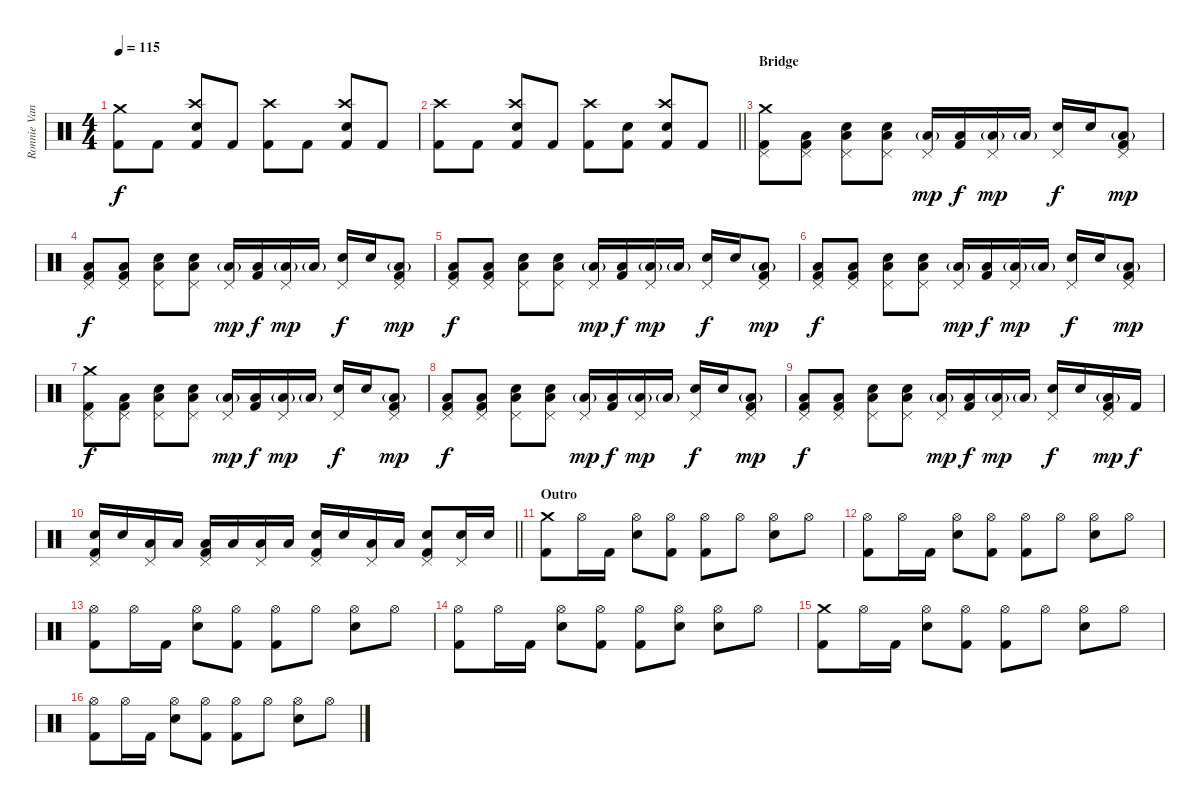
\track ("Ronnie Vannucci Jr. (Drums)" "Ronnie Van") {instrument percussion}
\staff {score}
\articulation defaults
\ts (4 4)
\tempo 115
\clef neutral
\ks c
("Crash medium (hit)" "Kick (hit) 2").8{dy f} "Kick (hit) 2".8 ("Crash high (hit)" "Electric Snare (hit)" "Kick (hit) 2").8 "Kick (hit) 2".8 ("Crash high (hit)" "Kick (hit) 2").8 "Kick (hit) 2".8 ("Crash high (hit)" "Electric Snare (hit)" "Kick (hit) 2").8 "Kick (hit) 2".8 |
\barLineRight lightlight
("Crash high (hit)" "Kick (hit) 2").8 "Kick (hit) 2".8 ("Crash high (hit)" "Electric Snare (hit)" "Kick (hit) 2").8 "Kick (hit) 2".8 ("Crash high (hit)" "Kick (hit) 2").8 ("Electric Snare (hit)" "Kick (hit) 2").8 ("Crash high (hit)" "Electric Snare (hit)" "Kick (hit) 2").8 "Kick (hit) 2".8 |
\section ("" "Bridge")
("Pedal Hi-Hat (hit)" "Crash medium (hit)" "Kick (hit) 2").8 ("Pedal Hi-Hat (hit)" "Low Floor Tom (hit)" "Kick (hit) 2").8 ("Pedal Hi-Hat (hit)" "Low Floor Tom (hit)" "Electric Snare (hit)").8 ("Pedal Hi-Hat (hit)" "Low Floor Tom (hit)" "Electric Snare (hit)").8 ("Pedal Hi-Hat (hit)" "Low Floor Tom (hit)"{g}).16{dy mp} ("Low Tom (hit)" "Kick (hit) 2").16{dy f} ("Pedal Hi-Hat (hit)" "Low Tom (hit)"{g}).16{dy mp} "Low Tom (hit)"{g}.16 ("Pedal Hi-Hat (hit)" "Electric Snare (hit)").16{dy f} "Electric Snare (hit)".16 ("Pedal Hi-Hat (hit)" "Low Floor Tom (hit)"{g} "Kick (hit) 2").8{dy mp} |
("Pedal Hi-Hat (hit)" "Low Floor Tom (hit)" "Kick (hit) 2").8{dy f} ("Pedal Hi-Hat (hit)" "Low Floor Tom (hit)" "Kick (hit) 2").8 ("Pedal Hi-Hat (hit)" "Low Floor Tom (hit)" "Electric Snare (hit)").8 ("Pedal Hi-Hat (hit)" "Low Floor Tom (hit)" "Electric Snare (hit)").8 ("Pedal Hi-Hat (hit)" "Low Floor Tom (hit)"{g}).16{dy mp} ("Low Tom (hit)" "Kick (hit) 2").16{dy f} ("Pedal Hi-Hat (hit)" "Low Tom (hit)"{g}).16{dy mp} "Low Tom (hit)"{g}.16 ("Pedal Hi-Hat (hit)" "Electric Snare (hit)").16{dy f} "Electric Snare (hit)".16 ("Pedal Hi-Hat (hit)" "Low Floor Tom (hit)"{g} "Kick (hit) 2").8{dy mp} |
("Pedal Hi-Hat (hit)" "Low Floor Tom (hit)" "Kick (hit) 2").8{dy f} ("Pedal Hi-Hat (hit)" "Low Floor Tom (hit)" "Kick (hit) 2").8 ("Pedal Hi-Hat (hit)" "Low Floor Tom (hit)" "Electric Snare (hit)").8 ("Pedal Hi-Hat (hit)" "Low Floor Tom (hit)" "Electric Snare (hit)").8 ("Pedal Hi-Hat (hit)" "Low Floor Tom (hit)"{g}).16{dy mp} ("Low Tom (hit)" "Kick (hit) 2").16{dy f} ("Pedal Hi-Hat (hit)" "Low Tom (hit)"{g}).16{dy mp} "Low Tom (hit)"{g}.16 ("Pedal Hi-Hat (hit)" "Electric Snare (hit)").16{dy f} "Electric Snare (hit)".16 ("Pedal Hi-Hat (hit)" "Low Floor Tom (hit)"{g} "Kick (hit) 2").8{dy mp} |
("Pedal Hi-Hat (hit)" "Low Floor Tom (hit)" "Kick (hit) 2").8{dy f} ("Pedal Hi-Hat (hit)" "Low Floor Tom (hit)" "Kick (hit) 2").8 ("Pedal Hi-Hat (hit)" "Low Floor Tom (hit)" "Electric Snare (hit)").8 ("Pedal Hi-Hat (hit)" "Low Floor Tom (hit)" "Electric Snare (hit)").8 ("Pedal Hi-Hat (hit)" "Low Floor Tom (hit)"{g}).16{dy mp} ("Low Tom (hit)" "Kick (hit) 2").16{dy f} ("Pedal Hi-Hat (hit)" "Low Tom (hit)"{g}).16{dy mp} "Low Tom (hit)"{g}.16 ("Pedal Hi-Hat (hit)" "Electric Snare (hit)").16{dy f} "Electric Snare (hit)".16 ("Pedal Hi-Hat (hit)" "Low Floor Tom (hit)"{g} "Kick (hit) 2").8{dy mp} |
("Pedal Hi-Hat (hit)" "Crash medium (hit)" "Kick (hit) 2").8{dy f} ("Pedal Hi-Hat (hit)" "Low Floor Tom (hit)" "Kick (hit) 2").8 ("Pedal Hi-Hat (hit)" "Low Floor Tom (hit)" "Electric Snare (hit)").8 ("Pedal Hi-Hat (hit)" "Low Floor Tom (hit)" "Electric Snare (hit)").8 ("Pedal Hi-Hat (hit)" "Low Floor Tom (hit)"{g}).16{dy mp} ("Low Tom (hit)" "Kick (hit) 2").16{dy f} ("Pedal Hi-Hat (hit)" "Low Tom (hit)"{g}).16{dy mp} "Low Tom (hit)"{g}.16 ("Pedal Hi-Hat (hit)" "Electric Snare (hit)").16{dy f} "Electric Snare (hit)".16 ("Pedal Hi-Hat (hit)" "Low Floor Tom (hit)"{g} "Kick (hit) 2").8{dy mp} |
("Pedal Hi-Hat (hit)" "Low Floor Tom (hit)" "Kick (hit) 2").8{dy f} ("Pedal Hi-Hat (hit)" "Low Floor Tom (hit)" "Kick (hit) 2").8 ("Pedal Hi-Hat (hit)" "Low Floor Tom (hit)" "Electric Snare (hit)").8 ("Pedal Hi-Hat (hit)" "Low Floor Tom (hit)" "Electric Snare (hit)").8 ("Pedal Hi-Hat (hit)" "Low Floor Tom (hit)"{g}).16{dy mp} ("Low Tom (hit)" "Kick (hit) 2").16{dy f} ("Pedal Hi-Hat (hit)" "Low Tom (hit)"{g}).16{dy mp} "Low Tom (hit)"{g}.16 ("Pedal Hi-Hat (hit)" "Electric Snare (hit)").16{dy f} "Electric Snare (hit)".16 ("Pedal Hi-Hat (hit)" "Low Floor Tom (hit)"{g} "Kick (hit) 2").8{dy mp} |
("Pedal Hi-Hat (hit)" "Low Floor Tom (hit)" "Kick (hit) 2").8{dy f} ("Pedal Hi-Hat (hit)" "Low Floor Tom (hit)" "Kick (hit) 2").8 ("Pedal Hi-Hat (hit)" "Low Floor Tom (hit)" "Electric Snare (hit)").8 ("Pedal Hi-Hat (hit)" "Low Floor Tom (hit)" "Electric Snare (hit)").8 ("Pedal Hi-Hat (hit)" "Low Floor Tom (hit)"{g}).16{dy mp} ("Low Tom (hit)" "Kick (hit) 2").16{dy f} ("Pedal Hi-Hat (hit)" "Low Tom (hit)"{g}).16{dy mp} "Low Tom (hit)"{g}.16 ("Pedal Hi-Hat (hit)" "Electric Snare (hit)").16{dy f} "Electric Snare (hit)".16 ("Pedal Hi-Hat (hit)" "Low Floor Tom (hit)"{g} "Kick (hit) 2").16{dy mp} "Kick (hit) 2".16{dy f} |
\barLineRight lightlight
("Pedal Hi-Hat (hit)" "Electric Snare (hit)" "Kick (hit) 2").16 "Electric Snare (hit)".16 ("Pedal Hi-Hat (hit)" "Low Floor Tom (hit)").16 "Low Tom (hit)".16 ("Pedal Hi-Hat (hit)" "Low Floor Tom (hit)" "Kick (hit) 2").16 "Low Floor Tom (hit)".16 ("Pedal Hi-Hat (hit)" "Low Floor Tom (hit)").16 "Low Floor Tom (hit)".16 ("Pedal Hi-Hat (hit)" "Electric Snare (hit)" "Kick (hit) 2").16 "Electric Snare (hit)".16 ("Pedal Hi-Hat (hit)" "Low Floor Tom (hit)").16 "Low Floor Tom (hit)".16 ("Pedal Hi-Hat (hit)" "Electric Snare (hit)" "Kick (hit) 2").8 ("Pedal Hi-Hat (hit)" "Electric Snare (hit)").16 "Electric Snare (hit)".16 |
\section ("" "Outro")
("Crash medium (hit)" "Kick (hit) 2").8 "Hi-Hat (open)".16 "Kick (hit) 2".16 ("Hi-Hat (open)" "Electric Snare (hit)").8 ("Hi-Hat (open)" "Kick (hit) 2").8 ("Hi-Hat (open)" "Kick (hit) 2").8 "Hi-Hat (open)".8 ("Hi-Hat (open)" "Electric Snare (hit)").8 "Hi-Hat (open)".8 |
("Hi-Hat (open)" "Kick (hit) 2").8 "Hi-Hat (open)".16 "Kick (hit) 2".16 ("Hi-Hat (open)" "Electric Snare (hit)").8 ("Hi-Hat (open)" "Kick (hit) 2").8 ("Hi-Hat (open)" "Kick (hit) 2").8 "Hi-Hat (open)".8 ("Hi-Hat (open)" "Electric Snare (hit)").8 "Hi-Hat (open)".8 |
("Hi-Hat (open)" "Kick (hit) 2").8 "Hi-Hat (open)".16 "Kick (hit) 2".16 ("Hi-Hat (open)" "Electric Snare (hit)").8 ("Hi-Hat (open)" "Kick (hit) 2").8 ("Hi-Hat (open)" "Kick (hit) 2").8 "Hi-Hat (open)".8 ("Hi-Hat (open)" "Electric Snare (hit)").8 "Hi-Hat (open)".8 |
("Hi-Hat (open)" "Kick (hit) 2").8 "Hi-Hat (open)".16 "Kick (hit) 2".16 ("Hi-Hat (open)" "Electric Snare (hit)").8 ("Hi-Hat (open)" "Kick (hit) 2").8 ("Hi-Hat (open)" "Kick (hit) 2").8 ("Hi-Hat (open)" "Electric Snare (hit)").8 ("Hi-Hat (open)" "Electric Snare (hit)").8 "Hi-Hat (open)".8 |
("Crash medium (hit)" "Kick (hit) 2").8 "Hi-Hat (open)".16 "Kick (hit) 2".16 ("Hi-Hat (open)" "Electric Snare (hit)").8 ("Hi-Hat (open)" "Kick (hit) 2").8 ("Hi-Hat (open)" "Kick (hit) 2").8 "Hi-Hat (open)".8 ("Hi-Hat (open)" "Electric Snare (hit)").8 "Hi-Hat (open)".8 |
("Hi-Hat (open)" "Kick (hit) 2").8 "Hi-Hat (open)".16 "Kick (hit) 2".16 ("Hi-Hat (open)" "Electric Snare (hit)").8 ("Hi-Hat (open)" "Kick (hit) 2").8 ("Hi-Hat (open)" "Kick (hit) 2").8 "Hi-Hat (open)".8 ("Hi-Hat (open)" "Electric Snare (hit)").8 "Hi-Hat (open)".8
